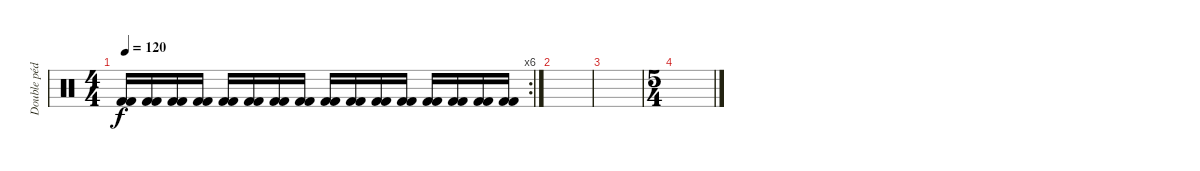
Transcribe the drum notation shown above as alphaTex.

\track ("Double pédales" "Double péd") {instrument percussion}
\staff {score}
\articulation defaults
\rc 6
\ts (4 4)
\tempo 120
\clef neutral
\ks c
("Kick (hit) 2" "Kick (hit) 2").16{dy f} ("Kick (hit) 2" "Kick (hit) 2").16 ("Kick (hit) 2" "Kick (hit) 2").16 ("Kick (hit) 2" "Kick (hit) 2").16 ("Kick (hit) 2" "Kick (hit) 2").16 ("Kick (hit) 2" "Kick (hit) 2").16 ("Kick (hit) 2" "Kick (hit) 2").16 ("Kick (hit) 2" "Kick (hit) 2").16 ("Kick (hit) 2" "Kick (hit) 2").16 ("Kick (hit) 2" "Kick (hit) 2").16 ("Kick (hit) 2" "Kick (hit) 2").16 ("Kick (hit) 2" "Kick (hit) 2").16 ("Kick (hit) 2" "Kick (hit) 2").16 ("Kick (hit) 2" "Kick (hit) 2").16 ("Kick (hit) 2" "Kick (hit) 2").16 ("Kick (hit) 2" "Kick (hit) 2").16 |
|
|
\ts (5 4)
